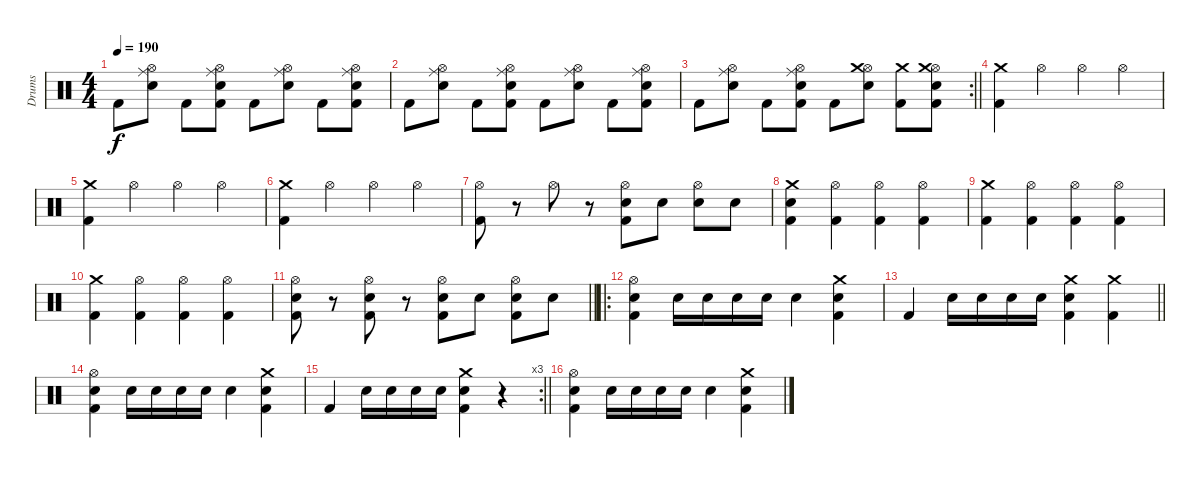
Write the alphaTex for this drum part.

\track ("Drums" "Drums") {instrument percussion}
\staff {score}
\articulation defaults
\ts (4 4)
\tempo 190
\clef neutral
\ks c "Kick (hit) 2".8{dy f}
("Snare (hit) 2" "Hi-Hat (open)" "Ride (middle)").8 "Kick (hit) 2".8 ("Kick (hit) 2" "Snare (hit) 2" "Hi-Hat (open)" "Ride (middle)").8 "Kick (hit) 2".8 ("Snare (hit) 2" "Hi-Hat (open)" "Ride (middle)").8 "Kick (hit) 2".8 ("Kick (hit) 2" "Snare (hit) 2" "Hi-Hat (open)" "Ride (middle)").8 |
"Kick (hit) 2".8 ("Snare (hit) 2" "Hi-Hat (open)" "Ride (middle)").8 "Kick (hit) 2".8 ("Kick (hit) 2" "Snare (hit) 2" "Hi-Hat (open)" "Ride (middle)").8 "Kick (hit) 2".8 ("Snare (hit) 2" "Hi-Hat (open)" "Ride (middle)").8 "Kick (hit) 2".8 ("Kick (hit) 2" "Snare (hit) 2" "Hi-Hat (open)" "Ride (middle)").8 |
\rc 2
\barLineRight lightlight "Kick (hit) 2".8
("Snare (hit) 2" "Hi-Hat (open)" "Ride (middle)").8 "Kick (hit) 2".8 ("Kick (hit) 2" "Snare (hit) 2" "Hi-Hat (open)" "Ride (middle)").8 "Kick (hit) 2".8 ("Snare (hit) 2" "Hi-Hat (open)" "Crash medium (hit)").8 ("Kick (hit) 2" "Crash medium (hit)").8 ("Kick (hit) 2" "Snare (hit) 2" "Hi-Hat (open)" "Crash medium (hit)").8 |
\section ("" "")
("Kick (hit) 2" "Crash medium (hit)").4 "Hi-Hat (open)".4 "Hi-Hat (open)".4 "Hi-Hat (open)".4 |
("Kick (hit) 2" "Crash medium (hit)").4 "Hi-Hat (open)".4 "Hi-Hat (open)".4 "Hi-Hat (open)".4 |
("Kick (hit) 2" "Crash medium (hit)").4 "Hi-Hat (open)".4 "Hi-Hat (open)".4 "Hi-Hat (open)".4 |
("Kick (hit) 2" "Hi-Hat (open)").8 r.8 "Hi-Hat (open)".8 r.8 ("Kick (hit) 2" "Snare (hit) 2" "Hi-Hat (open)").8 "Snare (hit) 2".8 ("Snare (hit) 2" "Hi-Hat (open)").8 "Snare (hit) 2".8 |
("Kick (hit) 2" "Snare (hit) 2" "Crash medium (hit)").4 ("Kick (hit) 2" "Hi-Hat (open)").4 ("Kick (hit) 2" "Hi-Hat (open)").4 ("Kick (hit) 2" "Hi-Hat (open)").4 |
("Kick (hit) 2" "Crash medium (hit)").4 ("Kick (hit) 2" "Hi-Hat (open)").4 ("Kick (hit) 2" "Hi-Hat (open)").4 ("Kick (hit) 2" "Hi-Hat (open)").4 |
("Kick (hit) 2" "Crash medium (hit)").4 ("Kick (hit) 2" "Hi-Hat (open)").4 ("Kick (hit) 2" "Hi-Hat (open)").4 ("Kick (hit) 2" "Hi-Hat (open)").4 |
\barLineRight lightlight
("Kick (hit) 2" "Snare (hit) 2" "Hi-Hat (open)").8 r.8 ("Kick (hit) 2" "Snare (hit) 2" "Hi-Hat (open)").8 r.8 ("Kick (hit) 2" "Snare (hit) 2" "Hi-Hat (open)").8 "Snare (hit) 2".8 ("Kick (hit) 2" "Snare (hit) 2" "Hi-Hat (open)").8 "Snare (hit) 2".8 |
\ro
\section ("" "")
("Kick (hit) 2" "Snare (hit) 2" "Hi-Hat (open)").4 "Snare (hit) 2".16 "Snare (hit) 2".16 "Snare (hit) 2".16 "Snare (hit) 2".16 "Snare (hit) 2".4 ("Kick (hit) 2" "Snare (hit) 2" "Crash medium (hit)").4 |
\barLineRight lightlight "Kick (hit) 2".4 "Snare (hit) 2".16 "Snare (hit) 2".16 "Snare (hit) 2".16 "Snare (hit) 2".16
("Kick (hit) 2" "Snare (hit) 2" "Crash medium (hit)").4 ("Kick (hit) 2" "Crash medium (hit)").4 |
("Kick (hit) 2" "Snare (hit) 2" "Hi-Hat (open)").4 "Snare (hit) 2".16 "Snare (hit) 2".16 "Snare (hit) 2".16 "Snare (hit) 2".16 "Snare (hit) 2".4 ("Kick (hit) 2" "Snare (hit) 2" "Crash medium (hit)").4 |
\rc 3
\barLineRight lightlight "Kick (hit) 2".4 "Snare (hit) 2".16 "Snare (hit) 2".16 "Snare (hit) 2".16 "Snare (hit) 2".16
("Kick (hit) 2" "Snare (hit) 2" "Crash medium (hit)").4 r.4 |
("Kick (hit) 2" "Snare (hit) 2" "Hi-Hat (open)").4 "Snare (hit) 2".16 "Snare (hit) 2".16 "Snare (hit) 2".16 "Snare (hit) 2".16 "Snare (hit) 2".4 ("Kick (hit) 2" "Snare (hit) 2" "Crash medium (hit)").4
